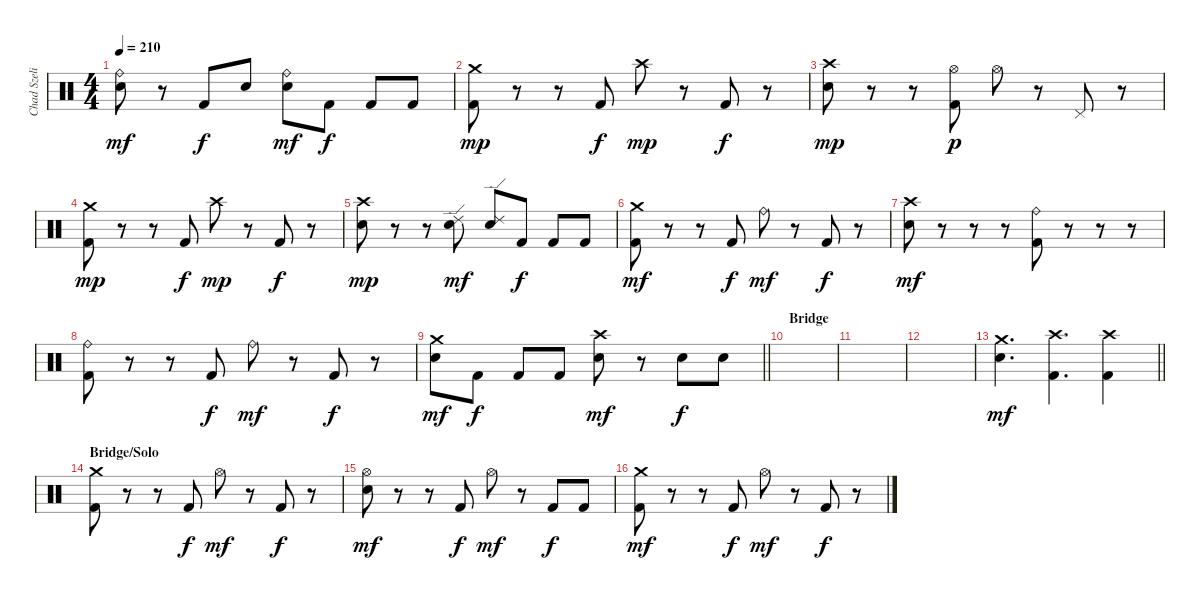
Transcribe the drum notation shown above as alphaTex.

\track ("Chad Szeliga" "Chad Szeli") {instrument percussion}
\staff {score}
\articulation defaults
\ts (4 4)
\tempo 210
\clef neutral
\ks c
("Snare (hit) 2" "Ride (bell)").8{dy mf} r.8 "Kick (hit) 2".8{dy f} "Snare (hit) 2".8 ("Snare (hit) 2" "Ride (bell)").8{dy mf} "Kick (hit) 2".8{dy f} "Kick (hit) 2".8 "Kick (hit) 2".8 |
("Kick (hit) 2" "Crash medium (hit)").8{dy mp} r.8 r.8 "Kick (hit) 2".8{dy f} "Crash high (hit)".8{dy mp} r.8 "Kick (hit) 2".8{dy f} r.8 |
("Snare (hit) 2" "Crash high (hit)").8{dy mp} r.8 r.8 ("Kick (hit) 2" "Hi-Hat (open)").8{dy p} "Hi-Hat (open)".8 r.8 "Pedal Hi-Hat (hit)".8 r.8 |
("Kick (hit) 2" "Crash medium (hit)").8{dy mp} r.8 r.8 "Kick (hit) 2".8{dy f} "Crash high (hit)".8{dy mp} r.8 "Kick (hit) 2".8{dy f} r.8 |
("Snare (hit) 2" "Crash high (hit)").8{dy mp} r.8 r.8 ("Snare (hit) 2" "Ride (edge) 2").8{dy mf} ("Snare (hit) 2" "Ride (edge) 2").8 "Kick (hit) 2".8{dy f} "Kick (hit) 2".8 "Kick (hit) 2".8 |
("Kick (hit) 2" "Crash medium (hit)").8{dy mf} r.8 r.8 "Kick (hit) 2".8{dy f} "Ride (bell)".8{dy mf} r.8 "Kick (hit) 2".8{dy f} r.8 |
("Snare (hit) 2" "Crash high (hit)").8{dy mf} r.8 r.8 r.8 ("Kick (hit) 2" "Ride (bell)").8 r.8 r.8 r.8 |
("Kick (hit) 2" "Ride (bell)").8 r.8 r.8 "Kick (hit) 2".8{dy f} "Ride (bell)".8{dy mf} r.8 "Kick (hit) 2".8{dy f} r.8 |
\barLineRight lightlight
("Snare (hit) 2" "Crash medium (hit)").8{dy mf} "Kick (hit) 2".8{dy f} "Kick (hit) 2".8 "Kick (hit) 2".8 ("Snare (hit) 2" "Crash high (hit)").8{dy mf} r.8 "Snare (hit) 2".8{dy f} "Snare (hit) 2".8 |
\section ("" "Bridge")
|
|
|
\barLineRight lightlight
("Snare (hit) 2" "Crash medium (hit)").4{d dy mf} ("Kick (hit) 2" "Crash high (hit)").4{d} ("Kick (hit) 2" "Crash high (hit)").4 |
\section ("" "Bridge/Solo")
("Kick (hit) 2" "Crash medium (hit)").8 r.8 r.8 "Kick (hit) 2".8{dy f} "Hi-Hat (open)".8{dy mf} r.8 "Kick (hit) 2".8{dy f} r.8 |
("Snare (hit) 2" "Hi-Hat (open)").8{dy mf} r.8 r.8 "Kick (hit) 2".8{dy f} "Hi-Hat (open)".8{dy mf} r.8 "Kick (hit) 2".8{dy f} "Kick (hit) 2".8 |
("Kick (hit) 2" "Crash medium (hit)").8{dy mf} r.8 r.8 "Kick (hit) 2".8{dy f} "Hi-Hat (open)".8{dy mf} r.8 "Kick (hit) 2".8{dy f} r.8
